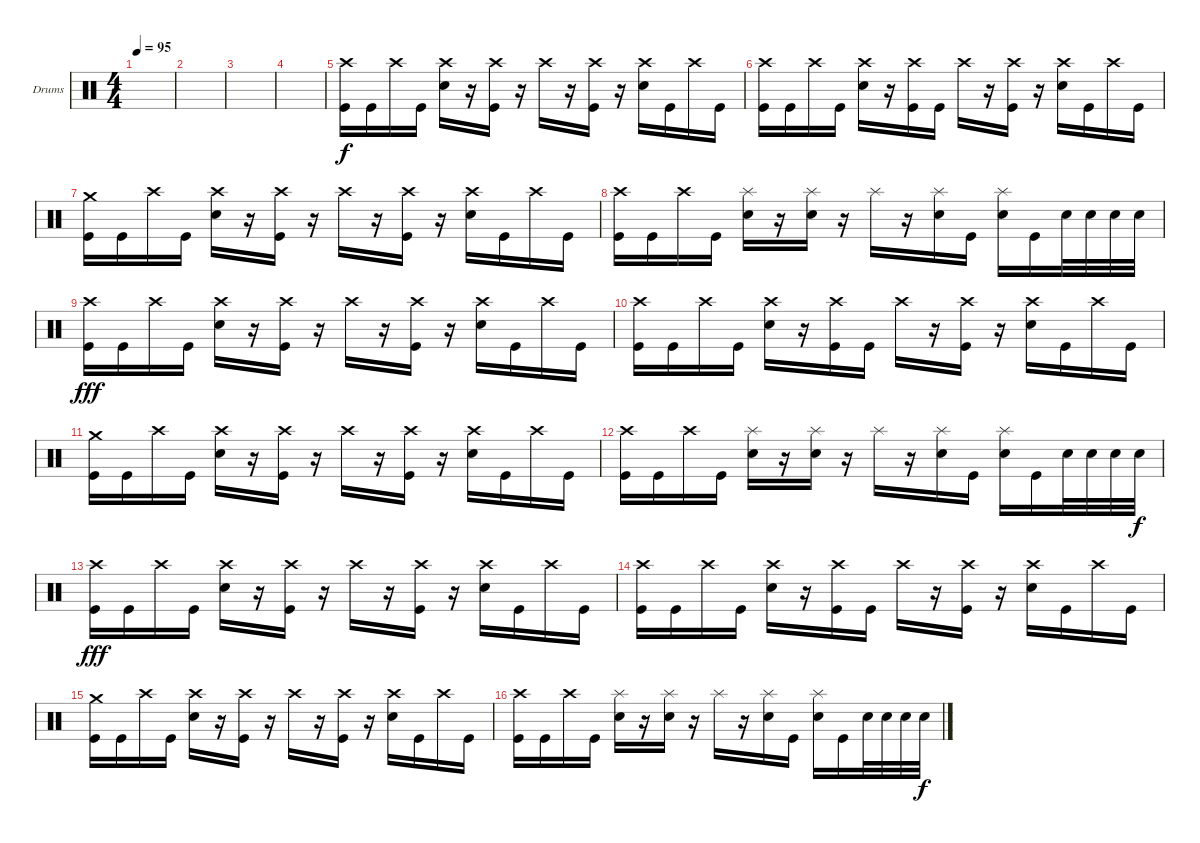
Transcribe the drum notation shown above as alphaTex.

\bracketExtendMode groupsimilarinstruments
\firstSystemTrackNameOrientation horizontal
\otherSystemsTrackNameOrientation horizontal
\track ("Drumkit" "Drums") {instrument percussion}
\staff {score}
\articulation defaults
\ts (4 4)
\tempo 95
\clef neutral
\ks c
|
|
|
|
("Crash high (hit)" "Kick (hit)").16 "Kick (hit)".16 "Crash high (hit)".16 "Kick (hit)".16 ("Crash high (hit)" "Snare (hit) 2").16 r.16 ("Crash high (hit)" "Kick (hit)").16 r.16 "Crash high (hit)".16 r.16 ("Crash high (hit)" "Kick (hit)").16 r.16 ("Crash high (hit)" "Snare (hit) 2").16 "Kick (hit)".16 "Crash high (hit)".16 "Kick (hit)".16 |
("Crash high (hit)" "Kick (hit)").16 "Kick (hit)".16 "Crash high (hit)".16 "Kick (hit)".16 ("Crash high (hit)" "Snare (hit) 2").16 r.16 ("Crash high (hit)" "Kick (hit)").16 "Kick (hit)".16 "Crash high (hit)".16 r.16 ("Crash high (hit)" "Kick (hit)").16 r.16 ("Crash high (hit)" "Snare (hit) 2").16 "Kick (hit)".16 "Crash high (hit)".16 "Kick (hit)".16 |
("Crash medium (hit)" "Kick (hit)").16 "Kick (hit)".16 "Crash high (hit)".16 "Kick (hit)".16 ("Crash high (hit)" "Snare (hit) 2").16 r.16 ("Crash high (hit)" "Kick (hit)").16 r.16 "Crash high (hit)".16 r.16 ("Crash high (hit)" "Kick (hit)").16 r.16 ("Crash high (hit)" "Snare (hit) 2").16 "Kick (hit)".16 "Crash high (hit)".16 "Kick (hit)".16 |
("Crash high (hit)" "Kick (hit)").16 "Kick (hit)".16 "Crash high (hit)".16 "Kick (hit)".16 ("Splash (hit)" "Snare (hit) 2").16 r.16 ("Splash (hit)" "Snare (hit) 2").16 r.16 "Splash (hit)".16 r.16 ("Splash (hit)" "Snare (hit) 2").16 "Kick (hit)".16 ("Splash (hit)" "Snare (hit) 2").16 "Kick (hit)".16 "Snare (hit) 2".32 "Snare (hit) 2".32 "Snare (hit) 2".32 "Snare (hit) 2".32{dy f} |
("Crash high (hit)" "Kick (hit)").16{dy fff} "Kick (hit)".16 "Crash high (hit)".16 "Kick (hit)".16 ("Crash high (hit)" "Snare (hit) 2").16 r.16 ("Crash high (hit)" "Kick (hit)").16 r.16 "Crash high (hit)".16 r.16 ("Crash high (hit)" "Kick (hit)").16 r.16 ("Crash high (hit)" "Snare (hit) 2").16 "Kick (hit)".16 "Crash high (hit)".16 "Kick (hit)".16 |
("Crash high (hit)" "Kick (hit)").16 "Kick (hit)".16 "Crash high (hit)".16 "Kick (hit)".16 ("Crash high (hit)" "Snare (hit) 2").16 r.16 ("Crash high (hit)" "Kick (hit)").16 "Kick (hit)".16 "Crash high (hit)".16 r.16 ("Crash high (hit)" "Kick (hit)").16 r.16 ("Crash high (hit)" "Snare (hit) 2").16 "Kick (hit)".16 "Crash high (hit)".16 "Kick (hit)".16 |
("Crash medium (hit)" "Kick (hit)").16 "Kick (hit)".16 "Crash high (hit)".16 "Kick (hit)".16 ("Crash high (hit)" "Snare (hit) 2").16 r.16 ("Crash high (hit)" "Kick (hit)").16 r.16 "Crash high (hit)".16 r.16 ("Crash high (hit)" "Kick (hit)").16 r.16 ("Crash high (hit)" "Snare (hit) 2").16 "Kick (hit)".16 "Crash high (hit)".16 "Kick (hit)".16 |
("Crash high (hit)" "Kick (hit)").16 "Kick (hit)".16 "Crash high (hit)".16 "Kick (hit)".16 ("Splash (hit)" "Snare (hit) 2").16 r.16 ("Splash (hit)" "Snare (hit) 2").16 r.16 "Splash (hit)".16 r.16 ("Splash (hit)" "Snare (hit) 2").16 "Kick (hit)".16 ("Splash (hit)" "Snare (hit) 2").16 "Kick (hit)".16 "Snare (hit) 2".32 "Snare (hit) 2".32 "Snare (hit) 2".32 "Snare (hit) 2".32{dy f} |
("Crash high (hit)" "Kick (hit)").16{dy fff} "Kick (hit)".16 "Crash high (hit)".16 "Kick (hit)".16 ("Crash high (hit)" "Snare (hit) 2").16 r.16 ("Crash high (hit)" "Kick (hit)").16 r.16 "Crash high (hit)".16 r.16 ("Crash high (hit)" "Kick (hit)").16 r.16 ("Crash high (hit)" "Snare (hit) 2").16 "Kick (hit)".16 "Crash high (hit)".16 "Kick (hit)".16 |
("Crash high (hit)" "Kick (hit)").16 "Kick (hit)".16 "Crash high (hit)".16 "Kick (hit)".16 ("Crash high (hit)" "Snare (hit) 2").16 r.16 ("Crash high (hit)" "Kick (hit)").16 "Kick (hit)".16 "Crash high (hit)".16 r.16 ("Crash high (hit)" "Kick (hit)").16 r.16 ("Crash high (hit)" "Snare (hit) 2").16 "Kick (hit)".16 "Crash high (hit)".16 "Kick (hit)".16 |
("Crash medium (hit)" "Kick (hit)").16 "Kick (hit)".16 "Crash high (hit)".16 "Kick (hit)".16 ("Crash high (hit)" "Snare (hit) 2").16 r.16 ("Crash high (hit)" "Kick (hit)").16 r.16 "Crash high (hit)".16 r.16 ("Crash high (hit)" "Kick (hit)").16 r.16 ("Crash high (hit)" "Snare (hit) 2").16 "Kick (hit)".16 "Crash high (hit)".16 "Kick (hit)".16 |
("Crash high (hit)" "Kick (hit)").16 "Kick (hit)".16 "Crash high (hit)".16 "Kick (hit)".16 ("Splash (hit)" "Snare (hit) 2").16 r.16 ("Splash (hit)" "Snare (hit) 2").16 r.16 "Splash (hit)".16 r.16 ("Splash (hit)" "Snare (hit) 2").16 "Kick (hit)".16 ("Splash (hit)" "Snare (hit) 2").16 "Kick (hit)".16 "Snare (hit) 2".32 "Snare (hit) 2".32 "Snare (hit) 2".32 "Snare (hit) 2".32{dy f}
